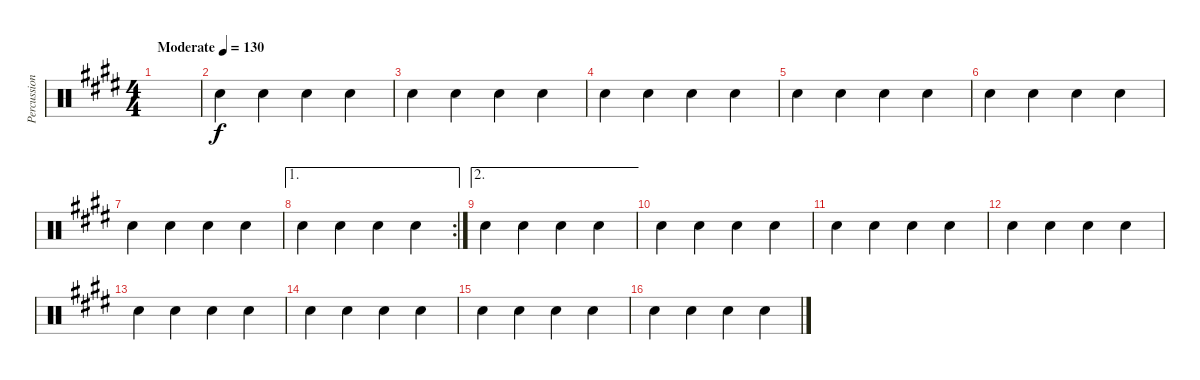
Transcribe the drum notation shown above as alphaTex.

\track ("Percussion" "Percussion") {instrument percussion}
\staff {score}
\articulation defaults
\ts (4 4)
\tempo (130 "Moderate")
\clef neutral
\ks e
|
"Snare (hit) 2".4 "Snare (hit) 2".4 "Snare (hit) 2".4 "Snare (hit) 2".4 |
"Snare (hit) 2".4 "Snare (hit) 2".4 "Snare (hit) 2".4 "Snare (hit) 2".4 |
"Snare (hit) 2".4 "Snare (hit) 2".4 "Snare (hit) 2".4 "Snare (hit) 2".4 |
"Snare (hit) 2".4 "Snare (hit) 2".4 "Snare (hit) 2".4 "Snare (hit) 2".4 |
"Snare (hit) 2".4 "Snare (hit) 2".4 "Snare (hit) 2".4 "Snare (hit) 2".4 |
"Snare (hit) 2".4 "Snare (hit) 2".4 "Snare (hit) 2".4 "Snare (hit) 2".4 |
\ae 1
\rc 2 "Snare (hit) 2".4 "Snare (hit) 2".4 "Snare (hit) 2".4 "Snare (hit) 2".4
|
\ae 2 "Snare (hit) 2".4 "Snare (hit) 2".4 "Snare (hit) 2".4 "Snare (hit) 2".4
|
"Snare (hit) 2".4 "Snare (hit) 2".4 "Snare (hit) 2".4 "Snare (hit) 2".4 |
"Snare (hit) 2".4 "Snare (hit) 2".4 "Snare (hit) 2".4 "Snare (hit) 2".4 |
"Snare (hit) 2".4 "Snare (hit) 2".4 "Snare (hit) 2".4 "Snare (hit) 2".4 |
"Snare (hit) 2".4 "Snare (hit) 2".4 "Snare (hit) 2".4 "Snare (hit) 2".4 |
"Snare (hit) 2".4 "Snare (hit) 2".4 "Snare (hit) 2".4 "Snare (hit) 2".4 |
"Snare (hit) 2".4 "Snare (hit) 2".4 "Snare (hit) 2".4 "Snare (hit) 2".4 |
"Snare (hit) 2".4 "Snare (hit) 2".4 "Snare (hit) 2".4 "Snare (hit) 2".4
